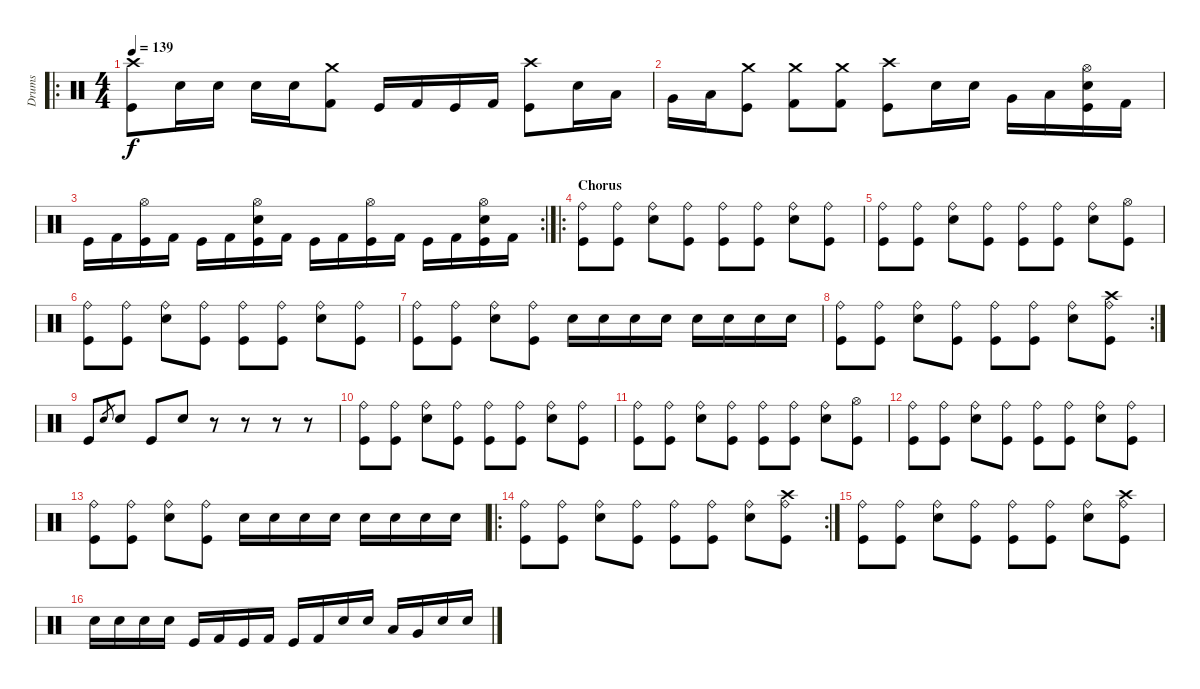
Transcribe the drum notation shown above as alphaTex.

\track ("Drums" "Drums") {instrument percussion}
\staff {score}
\articulation defaults
\ro
\ts (4 4)
\tempo 139
\clef neutral
\ks c
("Crash high (hit)" "Kick (hit)").8{dy f} "Electric Snare (hit)".16 "Electric Snare (hit)".16 "Electric Snare (hit)".16 "Electric Snare (hit)".16 ("Crash medium (hit)" "Kick (hit) 2").8 "Kick (hit)".16 "Kick (hit) 2".16 "Kick (hit)".16 "Kick (hit) 2".16 ("Crash high (hit)" "Kick (hit)").8 "Electric Snare (hit)".16 "Low Tom (hit)".16 |
"Very Low Tom (hit)".16 "Low Floor Tom (hit)".16 ("Crash medium (hit)" "Kick (hit)").8 ("Crash medium (hit)" "Kick (hit) 2").8 ("Crash medium (hit)" "Kick (hit) 2").8 ("Crash high (hit)" "Kick (hit)").8 "Electric Snare (hit)".16 "Electric Snare (hit)".16 "Very Low Tom (hit)".16 "Low Floor Tom (hit)".16 ("Hi-Hat (open)" "Electric Snare (hit)" "Kick (hit)").16 "Kick (hit) 2".16 |
\rc 2 "Kick (hit)".16 "Kick (hit) 2".16
("Hi-Hat (open)" "Kick (hit)").16 "Kick (hit) 2".16 "Kick (hit)".16 "Kick (hit) 2".16 ("Hi-Hat (open)" "Electric Snare (hit)" "Kick (hit)").16 "Kick (hit) 2".16 "Kick (hit)".16 "Kick (hit) 2".16 ("Hi-Hat (open)" "Kick (hit)").16 "Kick (hit) 2".16 "Kick (hit)".16 "Kick (hit) 2".16 ("Hi-Hat (open)" "Electric Snare (hit)" "Kick (hit)").16 "Kick (hit) 2".16 |
\ro
\section ("" "Chorus")
("Ride (bell)" "Kick (hit)").8 ("Ride (bell)" "Kick (hit)").8 ("Ride (bell)" "Electric Snare (hit)").8 ("Ride (bell)" "Kick (hit)").8 ("Ride (bell)" "Kick (hit)").8 ("Ride (bell)" "Kick (hit)").8 ("Ride (bell)" "Electric Snare (hit)").8 ("Ride (bell)" "Kick (hit)").8 |
("Ride (bell)" "Kick (hit)").8 ("Ride (bell)" "Kick (hit)").8 ("Ride (bell)" "Electric Snare (hit)").8 ("Ride (bell)" "Kick (hit)").8 ("Ride (bell)" "Kick (hit)").8 ("Ride (bell)" "Kick (hit)").8 ("Ride (bell)" "Electric Snare (hit)").8 ("Hi-Hat (open)" "Kick (hit)").8 |
("Ride (bell)" "Kick (hit)").8 ("Ride (bell)" "Kick (hit)").8 ("Ride (bell)" "Electric Snare (hit)").8 ("Ride (bell)" "Kick (hit)").8 ("Ride (bell)" "Kick (hit)").8 ("Ride (bell)" "Kick (hit)").8 ("Ride (bell)" "Electric Snare (hit)").8 ("Ride (bell)" "Kick (hit)").8 |
("Ride (bell)" "Kick (hit)").8 ("Ride (bell)" "Kick (hit)").8 ("Ride (bell)" "Electric Snare (hit)").8 ("Ride (bell)" "Kick (hit)").8 "Electric Snare (hit)".16 "Electric Snare (hit)".16 "Electric Snare (hit)".16 "Electric Snare (hit)".16 "Electric Snare (hit)".16 "Electric Snare (hit)".16 "Electric Snare (hit)".16 "Electric Snare (hit)".16 |
\rc 2
("Ride (bell)" "Kick (hit)").8 ("Ride (bell)" "Kick (hit)").8 ("Ride (bell)" "Electric Snare (hit)").8 ("Ride (bell)" "Kick (hit)").8 ("Ride (bell)" "Kick (hit)").8 ("Ride (bell)" "Kick (hit)").8 ("Ride (bell)" "Electric Snare (hit)").8 ("Crash high (hit)" "Ride (bell)" "Kick (hit)").8 |
"Kick (hit)".8 "Electric Snare (hit)".8{gr} "Electric Snare (hit)".8 "Kick (hit)".8 "Electric Snare (hit)".8 r.8 r.8 r.8 r.8 |
("Ride (bell)" "Kick (hit)").8 ("Ride (bell)" "Kick (hit)").8 ("Ride (bell)" "Electric Snare (hit)").8 ("Ride (bell)" "Kick (hit)").8 ("Ride (bell)" "Kick (hit)").8 ("Ride (bell)" "Kick (hit)").8 ("Ride (bell)" "Electric Snare (hit)").8 ("Ride (bell)" "Kick (hit)").8 |
("Ride (bell)" "Kick (hit)").8 ("Ride (bell)" "Kick (hit)").8 ("Ride (bell)" "Electric Snare (hit)").8 ("Ride (bell)" "Kick (hit)").8 ("Ride (bell)" "Kick (hit)").8 ("Ride (bell)" "Kick (hit)").8 ("Ride (bell)" "Electric Snare (hit)").8 ("Hi-Hat (open)" "Kick (hit)").8 |
("Ride (bell)" "Kick (hit)").8 ("Ride (bell)" "Kick (hit)").8 ("Ride (bell)" "Electric Snare (hit)").8 ("Ride (bell)" "Kick (hit)").8 ("Ride (bell)" "Kick (hit)").8 ("Ride (bell)" "Kick (hit)").8 ("Ride (bell)" "Electric Snare (hit)").8 ("Ride (bell)" "Kick (hit)").8 |
("Ride (bell)" "Kick (hit)").8 ("Ride (bell)" "Kick (hit)").8 ("Ride (bell)" "Electric Snare (hit)").8 ("Ride (bell)" "Kick (hit)").8 "Electric Snare (hit)".16 "Electric Snare (hit)".16 "Electric Snare (hit)".16 "Electric Snare (hit)".16 "Electric Snare (hit)".16 "Electric Snare (hit)".16 "Electric Snare (hit)".16 "Electric Snare (hit)".16 |
\ro
\rc 2
("Ride (bell)" "Kick (hit)").8 ("Ride (bell)" "Kick (hit)").8 ("Ride (bell)" "Electric Snare (hit)").8 ("Ride (bell)" "Kick (hit)").8 ("Ride (bell)" "Kick (hit)").8 ("Ride (bell)" "Kick (hit)").8 ("Ride (bell)" "Electric Snare (hit)").8 ("Crash high (hit)" "Ride (bell)" "Kick (hit)").8 |
("Ride (bell)" "Kick (hit)").8 ("Ride (bell)" "Kick (hit)").8 ("Ride (bell)" "Electric Snare (hit)").8 ("Ride (bell)" "Kick (hit)").8 ("Ride (bell)" "Kick (hit)").8 ("Ride (bell)" "Kick (hit)").8 ("Ride (bell)" "Electric Snare (hit)").8 ("Crash high (hit)" "Ride (bell)" "Kick (hit)").8 |
"Electric Snare (hit)".16 "Electric Snare (hit)".16 "Electric Snare (hit)".16 "Electric Snare (hit)".16 "Kick (hit)".16 "Kick (hit) 2".16 "Kick (hit)".16 "Kick (hit) 2".16 "Kick (hit)".16 "Kick (hit) 2".16 "Electric Snare (hit)".16 "Electric Snare (hit)".16 "Low Tom (hit)".16 "Very Low Tom (hit)".16 "Electric Snare (hit)".16 "Electric Snare (hit)".16
